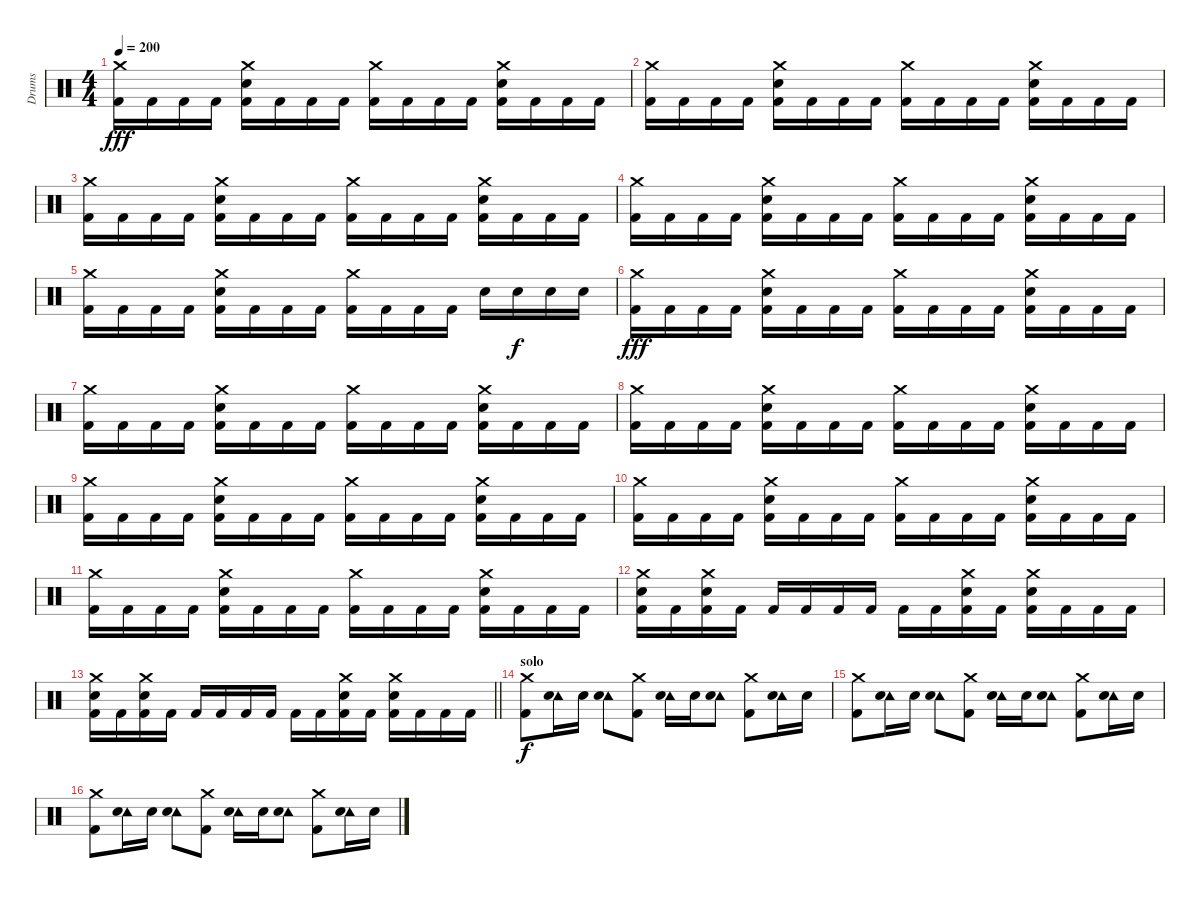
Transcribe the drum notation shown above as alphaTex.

\track ("Drums" "Drums") {instrument percussion}
\staff {score}
\articulation defaults
\ts (4 4)
\tempo 200
\clef neutral
\ks c
("Crash medium (hit)" "Kick (hit) 2").16{dy fff} "Kick (hit) 2".16 "Kick (hit) 2".16 "Kick (hit) 2".16 ("Crash medium (hit)" "Electric Snare (hit)" "Kick (hit) 2").16 "Kick (hit) 2".16 "Kick (hit) 2".16 "Kick (hit) 2".16 ("Crash medium (hit)" "Kick (hit) 2").16 "Kick (hit) 2".16 "Kick (hit) 2".16 "Kick (hit) 2".16 ("Crash medium (hit)" "Electric Snare (hit)" "Kick (hit) 2").16 "Kick (hit) 2".16 "Kick (hit) 2".16 "Kick (hit) 2".16 |
("Crash medium (hit)" "Kick (hit) 2").16 "Kick (hit) 2".16 "Kick (hit) 2".16 "Kick (hit) 2".16 ("Crash medium (hit)" "Electric Snare (hit)" "Kick (hit) 2").16 "Kick (hit) 2".16 "Kick (hit) 2".16 "Kick (hit) 2".16 ("Crash medium (hit)" "Kick (hit) 2").16 "Kick (hit) 2".16 "Kick (hit) 2".16 "Kick (hit) 2".16 ("Crash medium (hit)" "Electric Snare (hit)" "Kick (hit) 2").16 "Kick (hit) 2".16 "Kick (hit) 2".16 "Kick (hit) 2".16 |
("Crash medium (hit)" "Kick (hit) 2").16 "Kick (hit) 2".16 "Kick (hit) 2".16 "Kick (hit) 2".16 ("Crash medium (hit)" "Electric Snare (hit)" "Kick (hit) 2").16 "Kick (hit) 2".16 "Kick (hit) 2".16 "Kick (hit) 2".16 ("Crash medium (hit)" "Kick (hit) 2").16 "Kick (hit) 2".16 "Kick (hit) 2".16 "Kick (hit) 2".16 ("Crash medium (hit)" "Electric Snare (hit)" "Kick (hit) 2").16 "Kick (hit) 2".16 "Kick (hit) 2".16 "Kick (hit) 2".16 |
("Crash medium (hit)" "Kick (hit) 2").16 "Kick (hit) 2".16 "Kick (hit) 2".16 "Kick (hit) 2".16 ("Crash medium (hit)" "Electric Snare (hit)" "Kick (hit) 2").16 "Kick (hit) 2".16 "Kick (hit) 2".16 "Kick (hit) 2".16 ("Crash medium (hit)" "Kick (hit) 2").16 "Kick (hit) 2".16 "Kick (hit) 2".16 "Kick (hit) 2".16 ("Crash medium (hit)" "Electric Snare (hit)" "Kick (hit) 2").16 "Kick (hit) 2".16 "Kick (hit) 2".16 "Kick (hit) 2".16 |
("Crash medium (hit)" "Kick (hit) 2").16 "Kick (hit) 2".16 "Kick (hit) 2".16 "Kick (hit) 2".16 ("Crash medium (hit)" "Electric Snare (hit)" "Kick (hit) 2").16 "Kick (hit) 2".16 "Kick (hit) 2".16 "Kick (hit) 2".16 ("Crash medium (hit)" "Kick (hit) 2").16 "Kick (hit) 2".16 "Kick (hit) 2".16 "Kick (hit) 2".16 "Electric Snare (hit)".16 "Electric Snare (hit)".16{dy f} "Electric Snare (hit)".16 "Electric Snare (hit)".16 |
("Crash medium (hit)" "Kick (hit) 2").16{dy fff} "Kick (hit) 2".16 "Kick (hit) 2".16 "Kick (hit) 2".16 ("Crash medium (hit)" "Electric Snare (hit)" "Kick (hit) 2").16 "Kick (hit) 2".16 "Kick (hit) 2".16 "Kick (hit) 2".16 ("Crash medium (hit)" "Kick (hit) 2").16 "Kick (hit) 2".16 "Kick (hit) 2".16 "Kick (hit) 2".16 ("Crash medium (hit)" "Electric Snare (hit)" "Kick (hit) 2").16 "Kick (hit) 2".16 "Kick (hit) 2".16 "Kick (hit) 2".16 |
("Crash medium (hit)" "Kick (hit) 2").16 "Kick (hit) 2".16 "Kick (hit) 2".16 "Kick (hit) 2".16 ("Crash medium (hit)" "Electric Snare (hit)" "Kick (hit) 2").16 "Kick (hit) 2".16 "Kick (hit) 2".16 "Kick (hit) 2".16 ("Crash medium (hit)" "Kick (hit) 2").16 "Kick (hit) 2".16 "Kick (hit) 2".16 "Kick (hit) 2".16 ("Crash medium (hit)" "Electric Snare (hit)" "Kick (hit) 2").16 "Kick (hit) 2".16 "Kick (hit) 2".16 "Kick (hit) 2".16 |
("Crash medium (hit)" "Kick (hit) 2").16 "Kick (hit) 2".16 "Kick (hit) 2".16 "Kick (hit) 2".16 ("Crash medium (hit)" "Electric Snare (hit)" "Kick (hit) 2").16 "Kick (hit) 2".16 "Kick (hit) 2".16 "Kick (hit) 2".16 ("Crash medium (hit)" "Kick (hit) 2").16 "Kick (hit) 2".16 "Kick (hit) 2".16 "Kick (hit) 2".16 ("Crash medium (hit)" "Electric Snare (hit)" "Kick (hit) 2").16 "Kick (hit) 2".16 "Kick (hit) 2".16 "Kick (hit) 2".16 |
("Crash medium (hit)" "Kick (hit) 2").16 "Kick (hit) 2".16 "Kick (hit) 2".16 "Kick (hit) 2".16 ("Crash medium (hit)" "Electric Snare (hit)" "Kick (hit) 2").16 "Kick (hit) 2".16 "Kick (hit) 2".16 "Kick (hit) 2".16 ("Crash medium (hit)" "Kick (hit) 2").16 "Kick (hit) 2".16 "Kick (hit) 2".16 "Kick (hit) 2".16 ("Crash medium (hit)" "Electric Snare (hit)" "Kick (hit) 2").16 "Kick (hit) 2".16 "Kick (hit) 2".16 "Kick (hit) 2".16 |
("Crash medium (hit)" "Kick (hit) 2").16 "Kick (hit) 2".16 "Kick (hit) 2".16 "Kick (hit) 2".16 ("Crash medium (hit)" "Electric Snare (hit)" "Kick (hit) 2").16 "Kick (hit) 2".16 "Kick (hit) 2".16 "Kick (hit) 2".16 ("Crash medium (hit)" "Kick (hit) 2").16 "Kick (hit) 2".16 "Kick (hit) 2".16 "Kick (hit) 2".16 ("Crash medium (hit)" "Electric Snare (hit)" "Kick (hit) 2").16 "Kick (hit) 2".16 "Kick (hit) 2".16 "Kick (hit) 2".16 |
("Crash medium (hit)" "Kick (hit) 2").16 "Kick (hit) 2".16 "Kick (hit) 2".16 "Kick (hit) 2".16 ("Crash medium (hit)" "Electric Snare (hit)" "Kick (hit) 2").16 "Kick (hit) 2".16 "Kick (hit) 2".16 "Kick (hit) 2".16 ("Crash medium (hit)" "Kick (hit) 2").16 "Kick (hit) 2".16 "Kick (hit) 2".16 "Kick (hit) 2".16 ("Crash medium (hit)" "Electric Snare (hit)" "Kick (hit) 2").16 "Kick (hit) 2".16 "Kick (hit) 2".16 "Kick (hit) 2".16 |
("Crash medium (hit)" "Electric Snare (hit)" "Kick (hit) 2").16 "Kick (hit) 2".16 ("Crash medium (hit)" "Electric Snare (hit)" "Kick (hit) 2").16 "Kick (hit) 2".16 "Kick (hit) 2".16 "Kick (hit) 2".16 "Kick (hit) 2".16 "Kick (hit) 2".16 "Kick (hit) 2".16 "Kick (hit) 2".16 ("Crash medium (hit)" "Electric Snare (hit)" "Kick (hit) 2").16 "Kick (hit) 2".16 ("Crash medium (hit)" "Electric Snare (hit)" "Kick (hit) 2").16 "Kick (hit) 2".16 "Kick (hit) 2".16 "Kick (hit) 2".16 |
\barLineRight lightlight
("Crash medium (hit)" "Electric Snare (hit)" "Kick (hit) 2").16 "Kick (hit) 2".16 ("Crash medium (hit)" "Electric Snare (hit)" "Kick (hit) 2").16 "Kick (hit) 2".16 "Kick (hit) 2".16 "Kick (hit) 2".16 "Kick (hit) 2".16 "Kick (hit) 2".16 "Kick (hit) 2".16 "Kick (hit) 2".16 ("Crash medium (hit)" "Electric Snare (hit)" "Kick (hit) 2").16 "Kick (hit) 2".16 ("Crash medium (hit)" "Electric Snare (hit)" "Kick (hit) 2").16 "Kick (hit) 2".16 "Kick (hit) 2".16 "Kick (hit) 2".16 |
\section ("" "solo")
("Crash medium (hit)" "Kick (hit) 2").8{dy f} ("Tambourine (hit)" "Electric Snare (hit)").16 "Electric Snare (hit)".16 ("Tambourine (hit)" "Electric Snare (hit)").8 ("Crash medium (hit)" "Kick (hit) 2").8 ("Tambourine (hit)" "Electric Snare (hit)").16 "Electric Snare (hit)".16 ("Tambourine (hit)" "Electric Snare (hit)").8 ("Crash medium (hit)" "Kick (hit) 2").8 ("Tambourine (hit)" "Electric Snare (hit)").16 "Electric Snare (hit)".16 |
("Crash medium (hit)" "Kick (hit) 2").8 ("Tambourine (hit)" "Electric Snare (hit)").16 "Electric Snare (hit)".16 ("Tambourine (hit)" "Electric Snare (hit)").8 ("Crash medium (hit)" "Kick (hit) 2").8 ("Tambourine (hit)" "Electric Snare (hit)").16 "Electric Snare (hit)".16 ("Tambourine (hit)" "Electric Snare (hit)").8 ("Crash medium (hit)" "Kick (hit) 2").8 ("Tambourine (hit)" "Electric Snare (hit)").16 "Electric Snare (hit)".16 |
("Crash medium (hit)" "Kick (hit) 2").8 ("Tambourine (hit)" "Electric Snare (hit)").16 "Electric Snare (hit)".16 ("Tambourine (hit)" "Electric Snare (hit)").8 ("Crash medium (hit)" "Kick (hit) 2").8 ("Tambourine (hit)" "Electric Snare (hit)").16 "Electric Snare (hit)".16 ("Tambourine (hit)" "Electric Snare (hit)").8 ("Crash medium (hit)" "Kick (hit) 2").8 ("Tambourine (hit)" "Electric Snare (hit)").16 "Electric Snare (hit)".16
